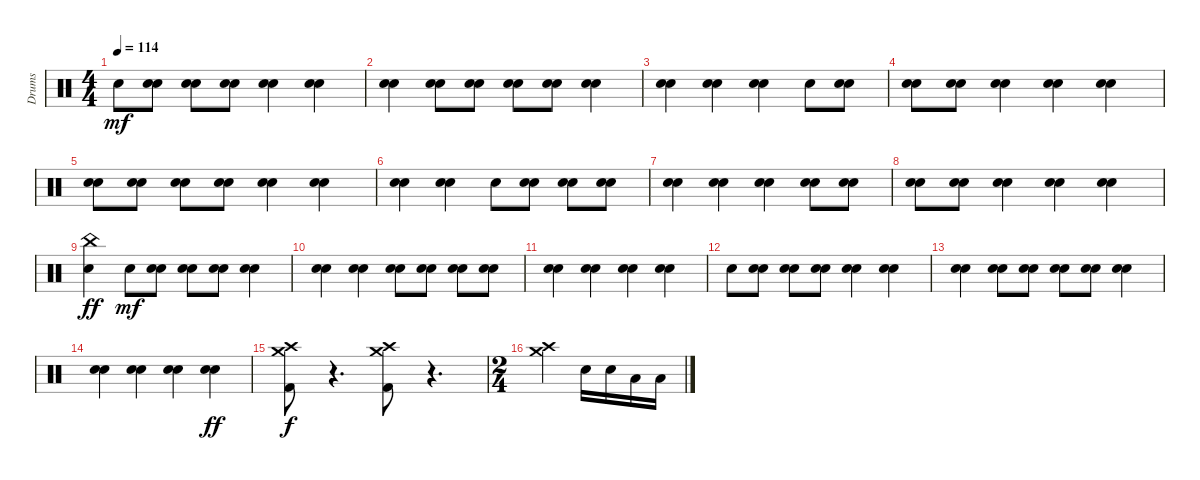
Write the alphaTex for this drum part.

\track ("Drums" "Drums") {instrument percussion}
\staff {score}
\articulation defaults
\ts (4 4)
\tempo 114
\clef neutral
\ks c "Electric Snare (hit)".8{dy mf}
("Electric Snare (hit)" "Electric Snare (hit)").8 ("Electric Snare (hit)" "Electric Snare (hit)").8 ("Electric Snare (hit)" "Electric Snare (hit)").8 ("Electric Snare (hit)" "Electric Snare (hit)").4 ("Electric Snare (hit)" "Electric Snare (hit)").4 |
("Electric Snare (hit)" "Electric Snare (hit)").4 ("Electric Snare (hit)" "Electric Snare (hit)").8 ("Electric Snare (hit)" "Electric Snare (hit)").8 ("Electric Snare (hit)" "Electric Snare (hit)").8 ("Electric Snare (hit)" "Electric Snare (hit)").8 ("Electric Snare (hit)" "Electric Snare (hit)").4 |
("Electric Snare (hit)" "Electric Snare (hit)").4 ("Electric Snare (hit)" "Electric Snare (hit)").4 ("Electric Snare (hit)" "Electric Snare (hit)").4 "Electric Snare (hit)".8 ("Electric Snare (hit)" "Electric Snare (hit)").8 |
("Electric Snare (hit)" "Electric Snare (hit)").8 ("Electric Snare (hit)" "Electric Snare (hit)").8 ("Electric Snare (hit)" "Electric Snare (hit)").4 ("Electric Snare (hit)" "Electric Snare (hit)").4 ("Electric Snare (hit)" "Electric Snare (hit)").4 |
("Electric Snare (hit)" "Electric Snare (hit)").8 ("Electric Snare (hit)" "Electric Snare (hit)").8 ("Electric Snare (hit)" "Electric Snare (hit)").8 ("Electric Snare (hit)" "Electric Snare (hit)").8 ("Electric Snare (hit)" "Electric Snare (hit)").4 ("Electric Snare (hit)" "Electric Snare (hit)").4 |
("Electric Snare (hit)" "Electric Snare (hit)").4 ("Electric Snare (hit)" "Electric Snare (hit)").4 "Electric Snare (hit)".8 ("Electric Snare (hit)" "Electric Snare (hit)").8 ("Electric Snare (hit)" "Electric Snare (hit)").8 ("Electric Snare (hit)" "Electric Snare (hit)").8 |
("Electric Snare (hit)" "Electric Snare (hit)").4 ("Electric Snare (hit)" "Electric Snare (hit)").4 ("Electric Snare (hit)" "Electric Snare (hit)").4 ("Electric Snare (hit)" "Electric Snare (hit)").8 ("Electric Snare (hit)" "Electric Snare (hit)").8 |
("Electric Snare (hit)" "Electric Snare (hit)").8 ("Electric Snare (hit)" "Electric Snare (hit)").8 ("Electric Snare (hit)" "Electric Snare (hit)").4 ("Electric Snare (hit)" "Electric Snare (hit)").4 ("Electric Snare (hit)" "Electric Snare (hit)").4 |
("China (hit)" "Electric Snare (hit)").4{dy ff} "Electric Snare (hit)".8{dy mf} ("Electric Snare (hit)" "Electric Snare (hit)").8 ("Electric Snare (hit)" "Electric Snare (hit)").8 ("Electric Snare (hit)" "Electric Snare (hit)").8 ("Electric Snare (hit)" "Electric Snare (hit)").4 |
("Electric Snare (hit)" "Electric Snare (hit)").4 ("Electric Snare (hit)" "Electric Snare (hit)").4 ("Electric Snare (hit)" "Electric Snare (hit)").8 ("Electric Snare (hit)" "Electric Snare (hit)").8 ("Electric Snare (hit)" "Electric Snare (hit)").8 ("Electric Snare (hit)" "Electric Snare (hit)").8 |
("Electric Snare (hit)" "Electric Snare (hit)").4 ("Electric Snare (hit)" "Electric Snare (hit)").4 ("Electric Snare (hit)" "Electric Snare (hit)").4 ("Electric Snare (hit)" "Electric Snare (hit)").4 |
"Electric Snare (hit)".8 ("Electric Snare (hit)" "Electric Snare (hit)").8 ("Electric Snare (hit)" "Electric Snare (hit)").8 ("Electric Snare (hit)" "Electric Snare (hit)").8 ("Electric Snare (hit)" "Electric Snare (hit)").4 ("Electric Snare (hit)" "Electric Snare (hit)").4 |
("Electric Snare (hit)" "Electric Snare (hit)").4 ("Electric Snare (hit)" "Electric Snare (hit)").8 ("Electric Snare (hit)" "Electric Snare (hit)").8 ("Electric Snare (hit)" "Electric Snare (hit)").8 ("Electric Snare (hit)" "Electric Snare (hit)").8 ("Electric Snare (hit)" "Electric Snare (hit)").4 |
("Electric Snare (hit)" "Electric Snare (hit)").4 ("Electric Snare (hit)" "Electric Snare (hit)").4 ("Electric Snare (hit)" "Electric Snare (hit)").4 ("Electric Snare (hit)" "Electric Snare (hit)").4{dy ff} |
("Crash medium (hit)" "Crash high (hit)" "Kick (hit) 2").8{dy f} r.4{d} ("Crash high (hit)" "Crash medium (hit)" "Kick (hit) 2").8 r.4{d} |
\ts (2 4)
("Crash medium (hit)" "Crash high (hit)").4 "Electric Snare (hit)".16 "Electric Snare (hit)".16 "Low Tom (hit)".16 "Low Tom (hit)".16
